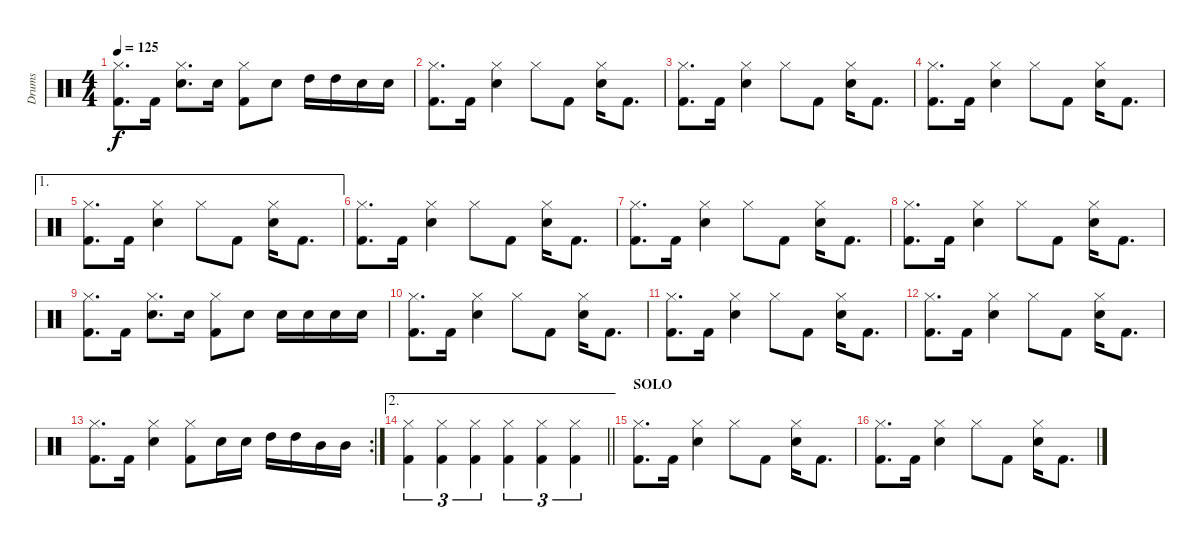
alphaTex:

\track ("Drums" "Drums") {instrument percussion}
\staff {score}
\articulation defaults
\ts (4 4)
\tempo 125
\clef neutral
\ks aminor
("Hi-Hat (closed)" "Kick (hit) 2").8{d dy f} "Kick (hit) 2".16 ("Hi-Hat (closed)" "Electric Snare (hit)").8{d} "Electric Snare (hit)".16 ("Hi-Hat (closed)" "Kick (hit) 2").8 "Electric Snare (hit)".8 "High Tom (hit)".16 "High Tom (hit)".16 "Electric Snare (hit)".16 "Electric Snare (hit)".16 |
("Hi-Hat (closed)" "Kick (hit) 2").8{d} "Kick (hit) 2".16 ("Hi-Hat (closed)" "Electric Snare (hit)").4 "Hi-Hat (closed)".8 "Kick (hit) 2".8 ("Hi-Hat (closed)" "Electric Snare (hit)").16 "Kick (hit) 2".8{d} |
("Hi-Hat (closed)" "Kick (hit) 2").8{d} "Kick (hit) 2".16 ("Hi-Hat (closed)" "Electric Snare (hit)").4 "Hi-Hat (closed)".8 "Kick (hit) 2".8 ("Hi-Hat (closed)" "Electric Snare (hit)").16 "Kick (hit) 2".8{d} |
("Hi-Hat (closed)" "Kick (hit) 2").8{d} "Kick (hit) 2".16 ("Hi-Hat (closed)" "Electric Snare (hit)").4 "Hi-Hat (closed)".8 "Kick (hit) 2".8 ("Hi-Hat (closed)" "Electric Snare (hit)").16 "Kick (hit) 2".8{d} |
\ae 1
("Hi-Hat (closed)" "Kick (hit) 2").8{d} "Kick (hit) 2".16 ("Hi-Hat (closed)" "Electric Snare (hit)").4 "Hi-Hat (closed)".8 "Kick (hit) 2".8 ("Hi-Hat (closed)" "Electric Snare (hit)").16 "Kick (hit) 2".8{d} |
("Hi-Hat (closed)" "Kick (hit) 2").8{d} "Kick (hit) 2".16 ("Hi-Hat (closed)" "Electric Snare (hit)").4 "Hi-Hat (closed)".8 "Kick (hit) 2".8 ("Hi-Hat (closed)" "Electric Snare (hit)").16 "Kick (hit) 2".8{d} |
("Hi-Hat (closed)" "Kick (hit) 2").8{d} "Kick (hit) 2".16 ("Hi-Hat (closed)" "Electric Snare (hit)").4 "Hi-Hat (closed)".8 "Kick (hit) 2".8 ("Hi-Hat (closed)" "Electric Snare (hit)").16 "Kick (hit) 2".8{d} |
("Hi-Hat (closed)" "Kick (hit) 2").8{d} "Kick (hit) 2".16 ("Hi-Hat (closed)" "Electric Snare (hit)").4 "Hi-Hat (closed)".8 "Kick (hit) 2".8 ("Hi-Hat (closed)" "Electric Snare (hit)").16 "Kick (hit) 2".8{d} |
("Hi-Hat (closed)" "Kick (hit) 2").8{d} "Kick (hit) 2".16 ("Hi-Hat (closed)" "Electric Snare (hit)").8{d} "Electric Snare (hit)".16 ("Hi-Hat (closed)" "Kick (hit) 2").8 "Electric Snare (hit)".8 "Electric Snare (hit)".16 "Electric Snare (hit)".16 "Electric Snare (hit)".16 "Electric Snare (hit)".16 |
("Hi-Hat (closed)" "Kick (hit) 2").8{d} "Kick (hit) 2".16 ("Hi-Hat (closed)" "Electric Snare (hit)").4 "Hi-Hat (closed)".8 "Kick (hit) 2".8 ("Hi-Hat (closed)" "Electric Snare (hit)").16 "Kick (hit) 2".8{d} |
("Hi-Hat (closed)" "Kick (hit) 2").8{d} "Kick (hit) 2".16 ("Hi-Hat (closed)" "Electric Snare (hit)").4 "Hi-Hat (closed)".8 "Kick (hit) 2".8 ("Hi-Hat (closed)" "Electric Snare (hit)").16 "Kick (hit) 2".8{d} |
("Hi-Hat (closed)" "Kick (hit) 2").8{d} "Kick (hit) 2".16 ("Hi-Hat (closed)" "Electric Snare (hit)").4 "Hi-Hat (closed)".8 "Kick (hit) 2".8 ("Hi-Hat (closed)" "Electric Snare (hit)").16 "Kick (hit) 2".8{d} |
\rc 2
("Hi-Hat (closed)" "Kick (hit) 2").8{d} "Kick (hit) 2".16 ("Hi-Hat (closed)" "Electric Snare (hit)").4 ("Hi-Hat (closed)" "Kick (hit) 2").8 "Electric Snare (hit)".16 "Electric Snare (hit)".16 "High Tom (hit)".16 "High Tom (hit)".16 "Mid Tom (hit)".16 "Mid Tom (hit)".16 |
\ae 2
\barLineRight lightlight
("Hi-Hat (closed)" "Kick (hit) 2").4{tu (3 2)} ("Hi-Hat (closed)" "Kick (hit) 2").4{tu (3 2)} ("Hi-Hat (closed)" "Kick (hit) 2").4{tu (3 2)} ("Hi-Hat (closed)" "Kick (hit) 2").4{tu (3 2)} ("Hi-Hat (closed)" "Kick (hit) 2").4{tu (3 2)} ("Hi-Hat (closed)" "Kick (hit) 2").4{tu (3 2)} |
\section ("" "SOLO")
("Hi-Hat (closed)" "Kick (hit) 2").8{d} "Kick (hit) 2".16 ("Hi-Hat (closed)" "Electric Snare (hit)").4 "Hi-Hat (closed)".8 "Kick (hit) 2".8 ("Hi-Hat (closed)" "Electric Snare (hit)").16 "Kick (hit) 2".8{d} |
("Hi-Hat (closed)" "Kick (hit) 2").8{d} "Kick (hit) 2".16 ("Hi-Hat (closed)" "Electric Snare (hit)").4 "Hi-Hat (closed)".8 "Kick (hit) 2".8 ("Hi-Hat (closed)" "Electric Snare (hit)").16 "Kick (hit) 2".8{d}
